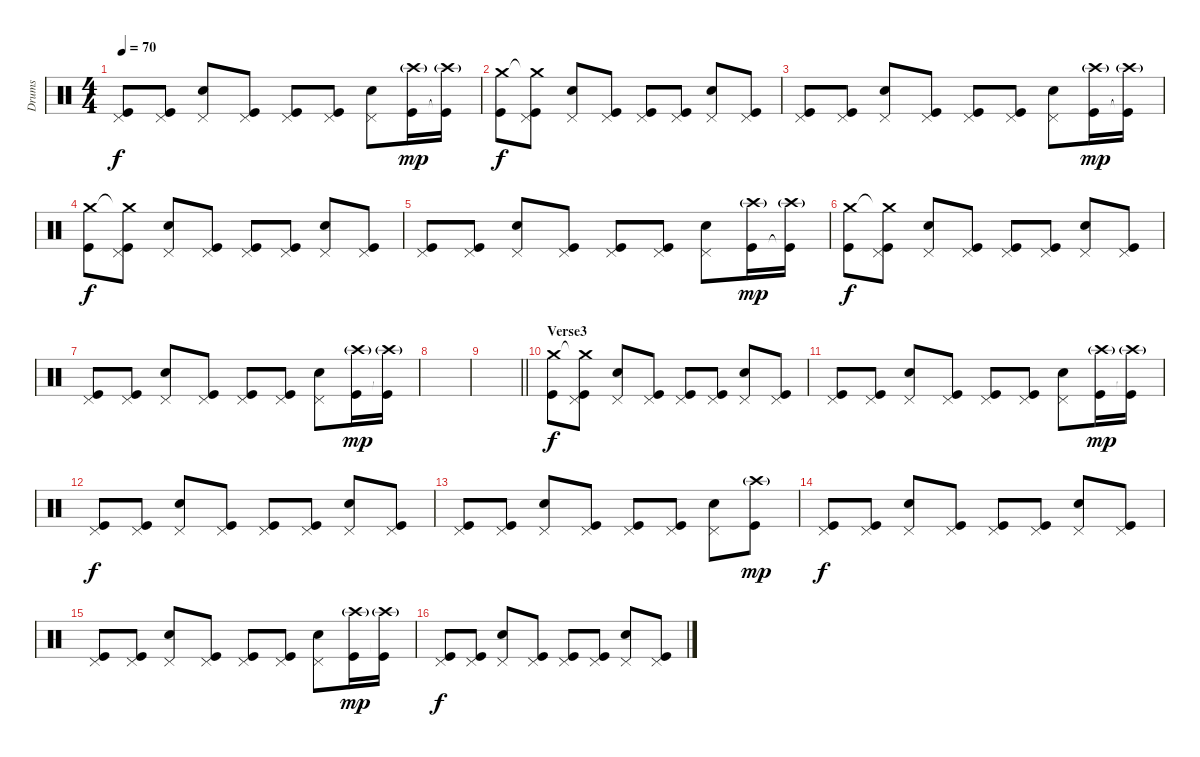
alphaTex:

\track ("Drums" "Drums") {instrument percussion}
\staff {score}
\articulation defaults
\ts (4 4)
\tempo 70
\clef neutral
\ks c
("Pedal Hi-Hat (hit)" "Kick (hit)").8{dy f} ("Pedal Hi-Hat (hit)" "Kick (hit)").8 ("Pedal Hi-Hat (hit)" "Snare (hit) 2").8 ("Pedal Hi-Hat (hit)" "Kick (hit)").8 ("Pedal Hi-Hat (hit)" "Kick (hit)").8 ("Pedal Hi-Hat (hit)" "Kick (hit)").8 ("Pedal Hi-Hat (hit)" "Snare (hit) 2").8 ("Crash high (hit)"{g} "Kick (hit)").16{dy mp} ("Crash high (hit)"{g} "Kick (hit)"{t}).16 |
("Crash medium (hit)" "Kick (hit)").8{dy f} ("Crash medium (hit)"{t} "Pedal Hi-Hat (hit)" "Kick (hit)").8 ("Pedal Hi-Hat (hit)" "Snare (hit) 2").8 ("Pedal Hi-Hat (hit)" "Kick (hit)").8 ("Pedal Hi-Hat (hit)" "Kick (hit)").8 ("Pedal Hi-Hat (hit)" "Kick (hit)").8 ("Pedal Hi-Hat (hit)" "Snare (hit) 2").8 ("Pedal Hi-Hat (hit)" "Kick (hit)").8 |
("Pedal Hi-Hat (hit)" "Kick (hit)").8 ("Pedal Hi-Hat (hit)" "Kick (hit)").8 ("Pedal Hi-Hat (hit)" "Snare (hit) 2").8 ("Pedal Hi-Hat (hit)" "Kick (hit)").8 ("Pedal Hi-Hat (hit)" "Kick (hit)").8 ("Pedal Hi-Hat (hit)" "Kick (hit)").8 ("Pedal Hi-Hat (hit)" "Snare (hit) 2").8 ("Crash high (hit)"{g} "Kick (hit)").16{dy mp} ("Crash high (hit)"{g} "Kick (hit)"{t}).16 |
("Crash medium (hit)" "Kick (hit)").8{dy f} ("Crash medium (hit)"{t} "Pedal Hi-Hat (hit)" "Kick (hit)").8 ("Pedal Hi-Hat (hit)" "Snare (hit) 2").8 ("Pedal Hi-Hat (hit)" "Kick (hit)").8 ("Pedal Hi-Hat (hit)" "Kick (hit)").8 ("Pedal Hi-Hat (hit)" "Kick (hit)").8 ("Pedal Hi-Hat (hit)" "Snare (hit) 2").8 ("Pedal Hi-Hat (hit)" "Kick (hit)").8 |
("Pedal Hi-Hat (hit)" "Kick (hit)").8 ("Pedal Hi-Hat (hit)" "Kick (hit)").8 ("Pedal Hi-Hat (hit)" "Snare (hit) 2").8 ("Pedal Hi-Hat (hit)" "Kick (hit)").8 ("Pedal Hi-Hat (hit)" "Kick (hit)").8 ("Pedal Hi-Hat (hit)" "Kick (hit)").8 ("Pedal Hi-Hat (hit)" "Snare (hit) 2").8 ("Crash high (hit)"{g} "Kick (hit)").16{dy mp} ("Crash high (hit)"{g} "Kick (hit)"{t}).16 |
("Crash medium (hit)" "Kick (hit)").8{dy f} ("Crash medium (hit)"{t} "Pedal Hi-Hat (hit)" "Kick (hit)").8 ("Pedal Hi-Hat (hit)" "Snare (hit) 2").8 ("Pedal Hi-Hat (hit)" "Kick (hit)").8 ("Pedal Hi-Hat (hit)" "Kick (hit)").8 ("Pedal Hi-Hat (hit)" "Kick (hit)").8 ("Pedal Hi-Hat (hit)" "Snare (hit) 2").8 ("Pedal Hi-Hat (hit)" "Kick (hit)").8 |
("Pedal Hi-Hat (hit)" "Kick (hit)").8 ("Pedal Hi-Hat (hit)" "Kick (hit)").8 ("Pedal Hi-Hat (hit)" "Snare (hit) 2").8 ("Pedal Hi-Hat (hit)" "Kick (hit)").8 ("Pedal Hi-Hat (hit)" "Kick (hit)").8 ("Pedal Hi-Hat (hit)" "Kick (hit)").8 ("Pedal Hi-Hat (hit)" "Snare (hit) 2").8 ("Crash high (hit)"{g} "Kick (hit)").16{dy mp} ("Crash high (hit)"{g} "Kick (hit)"{t}).16 |
|
\barLineRight lightlight
|
\section ("" "Verse3")
("Crash medium (hit)" "Kick (hit)").8{dy f} ("Crash medium (hit)"{t} "Pedal Hi-Hat (hit)" "Kick (hit)").8 ("Pedal Hi-Hat (hit)" "Snare (hit) 2").8 ("Pedal Hi-Hat (hit)" "Kick (hit)").8 ("Pedal Hi-Hat (hit)" "Kick (hit)").8 ("Pedal Hi-Hat (hit)" "Kick (hit)").8 ("Pedal Hi-Hat (hit)" "Snare (hit) 2").8 ("Pedal Hi-Hat (hit)" "Kick (hit)").8 |
("Pedal Hi-Hat (hit)" "Kick (hit)").8 ("Pedal Hi-Hat (hit)" "Kick (hit)").8 ("Pedal Hi-Hat (hit)" "Snare (hit) 2").8 ("Pedal Hi-Hat (hit)" "Kick (hit)").8 ("Pedal Hi-Hat (hit)" "Kick (hit)").8 ("Pedal Hi-Hat (hit)" "Kick (hit)").8 ("Pedal Hi-Hat (hit)" "Snare (hit) 2").8 ("Crash high (hit)"{g} "Kick (hit)").16{dy mp} ("Crash high (hit)"{g} "Kick (hit)"{t}).16 |
("Pedal Hi-Hat (hit)" "Kick (hit)").8{dy f} ("Pedal Hi-Hat (hit)" "Kick (hit)").8 ("Pedal Hi-Hat (hit)" "Snare (hit) 2").8 ("Pedal Hi-Hat (hit)" "Kick (hit)").8 ("Pedal Hi-Hat (hit)" "Kick (hit)").8 ("Pedal Hi-Hat (hit)" "Kick (hit)").8 ("Pedal Hi-Hat (hit)" "Snare (hit) 2").8 ("Pedal Hi-Hat (hit)" "Kick (hit)").8 |
("Pedal Hi-Hat (hit)" "Kick (hit)").8 ("Pedal Hi-Hat (hit)" "Kick (hit)").8 ("Pedal Hi-Hat (hit)" "Snare (hit) 2").8 ("Pedal Hi-Hat (hit)" "Kick (hit)").8 ("Pedal Hi-Hat (hit)" "Kick (hit)").8 ("Pedal Hi-Hat (hit)" "Kick (hit)").8 ("Pedal Hi-Hat (hit)" "Snare (hit) 2").8 ("Crash high (hit)"{g} "Kick (hit)").8{dy mp} |
("Pedal Hi-Hat (hit)" "Kick (hit)").8{dy f} ("Pedal Hi-Hat (hit)" "Kick (hit)").8 ("Pedal Hi-Hat (hit)" "Snare (hit) 2").8 ("Pedal Hi-Hat (hit)" "Kick (hit)").8 ("Pedal Hi-Hat (hit)" "Kick (hit)").8 ("Pedal Hi-Hat (hit)" "Kick (hit)").8 ("Pedal Hi-Hat (hit)" "Snare (hit) 2").8 ("Pedal Hi-Hat (hit)" "Kick (hit)").8 |
("Pedal Hi-Hat (hit)" "Kick (hit)").8 ("Pedal Hi-Hat (hit)" "Kick (hit)").8 ("Pedal Hi-Hat (hit)" "Snare (hit) 2").8 ("Pedal Hi-Hat (hit)" "Kick (hit)").8 ("Pedal Hi-Hat (hit)" "Kick (hit)").8 ("Pedal Hi-Hat (hit)" "Kick (hit)").8 ("Pedal Hi-Hat (hit)" "Snare (hit) 2").8 ("Crash high (hit)"{g} "Kick (hit)").16{dy mp} ("Crash high (hit)"{g} "Kick (hit)"{t}).16 |
("Pedal Hi-Hat (hit)" "Kick (hit)").8{dy f} ("Pedal Hi-Hat (hit)" "Kick (hit)").8 ("Pedal Hi-Hat (hit)" "Snare (hit) 2").8 ("Pedal Hi-Hat (hit)" "Kick (hit)").8 ("Pedal Hi-Hat (hit)" "Kick (hit)").8 ("Pedal Hi-Hat (hit)" "Kick (hit)").8 ("Pedal Hi-Hat (hit)" "Snare (hit) 2").8 ("Pedal Hi-Hat (hit)" "Kick (hit)").8
